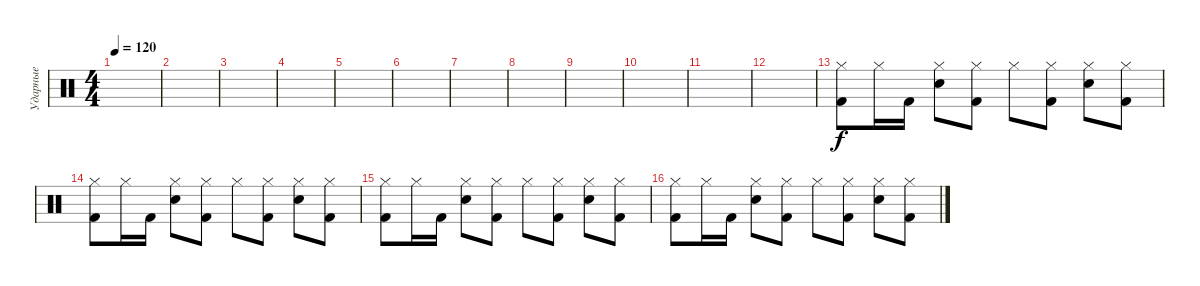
\track ("Ударные" "Ударные") {instrument percussion}
\staff {score}
\articulation defaults
\ts (4 4)
\tempo 120
\clef neutral
\ks c
|
|
|
|
|
|
|
|
|
|
|
|
("Hi-Hat (closed)" "Kick (hit) 2").8 "Hi-Hat (closed)".16 "Kick (hit) 2".16 ("Hi-Hat (closed)" "Electric Snare (hit)").8 ("Hi-Hat (closed)" "Kick (hit) 2").8 "Hi-Hat (closed)".8 ("Hi-Hat (closed)" "Kick (hit) 2").8 ("Hi-Hat (closed)" "Electric Snare (hit)").8 ("Hi-Hat (closed)" "Kick (hit) 2").8 |
("Hi-Hat (closed)" "Kick (hit) 2").8 "Hi-Hat (closed)".16 "Kick (hit) 2".16 ("Hi-Hat (closed)" "Electric Snare (hit)").8 ("Hi-Hat (closed)" "Kick (hit) 2").8 "Hi-Hat (closed)".8 ("Hi-Hat (closed)" "Kick (hit) 2").8 ("Hi-Hat (closed)" "Electric Snare (hit)").8 ("Hi-Hat (closed)" "Kick (hit) 2").8 |
("Hi-Hat (closed)" "Kick (hit) 2").8 "Hi-Hat (closed)".16 "Kick (hit) 2".16 ("Hi-Hat (closed)" "Electric Snare (hit)").8 ("Hi-Hat (closed)" "Kick (hit) 2").8 "Hi-Hat (closed)".8 ("Hi-Hat (closed)" "Kick (hit) 2").8 ("Hi-Hat (closed)" "Electric Snare (hit)").8 ("Hi-Hat (closed)" "Kick (hit) 2").8 |
("Hi-Hat (closed)" "Kick (hit) 2").8 "Hi-Hat (closed)".16 "Kick (hit) 2".16 ("Hi-Hat (closed)" "Electric Snare (hit)").8 ("Hi-Hat (closed)" "Kick (hit) 2").8 "Hi-Hat (closed)".8 ("Hi-Hat (closed)" "Kick (hit) 2").8 ("Hi-Hat (closed)" "Electric Snare (hit)").8 ("Hi-Hat (closed)" "Kick (hit) 2").8
